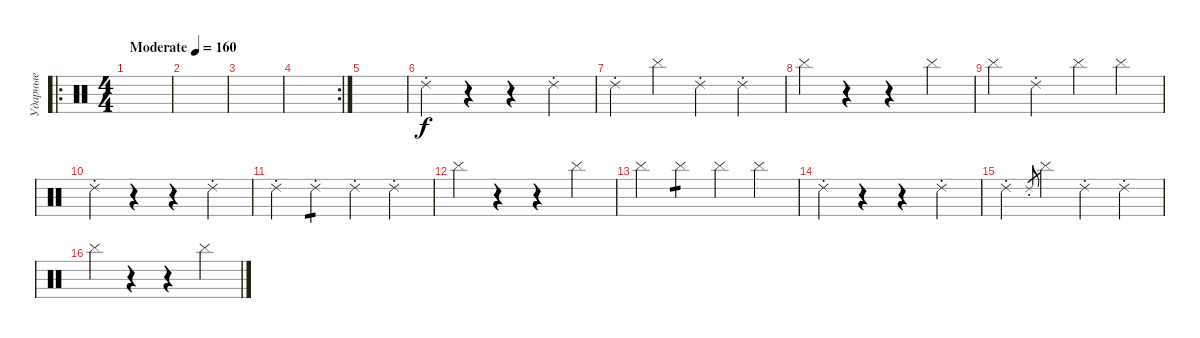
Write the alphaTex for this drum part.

\track ("Ударные" "Ударные") {instrument percussion}
\staff {score}
\articulation defaults
\ro
\ts (4 4)
\tempo (160 "Moderate")
\clef neutral
\ks c
|
|
|
\rc 2
|
|
"Ride (choke) 2".4 r.4 r.4 "Ride (choke) 2".4 |
"Ride (choke) 2".4 "Cymbal (hit)".4 "Ride (choke) 2".4 "Ride (choke) 2".4 |
"Cymbal (hit)".4 r.4 r.4 "Cymbal (hit)".4 |
"Cymbal (hit)".4 "Ride (choke) 2".4 "Cymbal (hit)".4 "Cymbal (hit)".4 |
"Ride (choke) 2".4 r.4 r.4 "Ride (choke) 2".4 |
"Ride (choke) 2".4 "Ride (choke) 2".4{tp 1} "Ride (choke) 2".4 "Ride (choke) 2".4 |
"Cymbal (hit)".4 r.4 r.4 "Cymbal (hit)".4 |
"Cymbal (hit)".4 "Cymbal (hit)".4{tp 1} "Cymbal (hit)".4 "Cymbal (hit)".4 |
"Ride (choke) 2".4 r.4 r.4 "Ride (choke) 2".4 |
"Ride (choke) 2".4 "Ride (choke) 2".8{gr} "Cymbal (hit)".4 "Ride (choke) 2".4 "Ride (choke) 2".4 |
"Cymbal (hit)".4 r.4 r.4 "Cymbal (hit)".4
